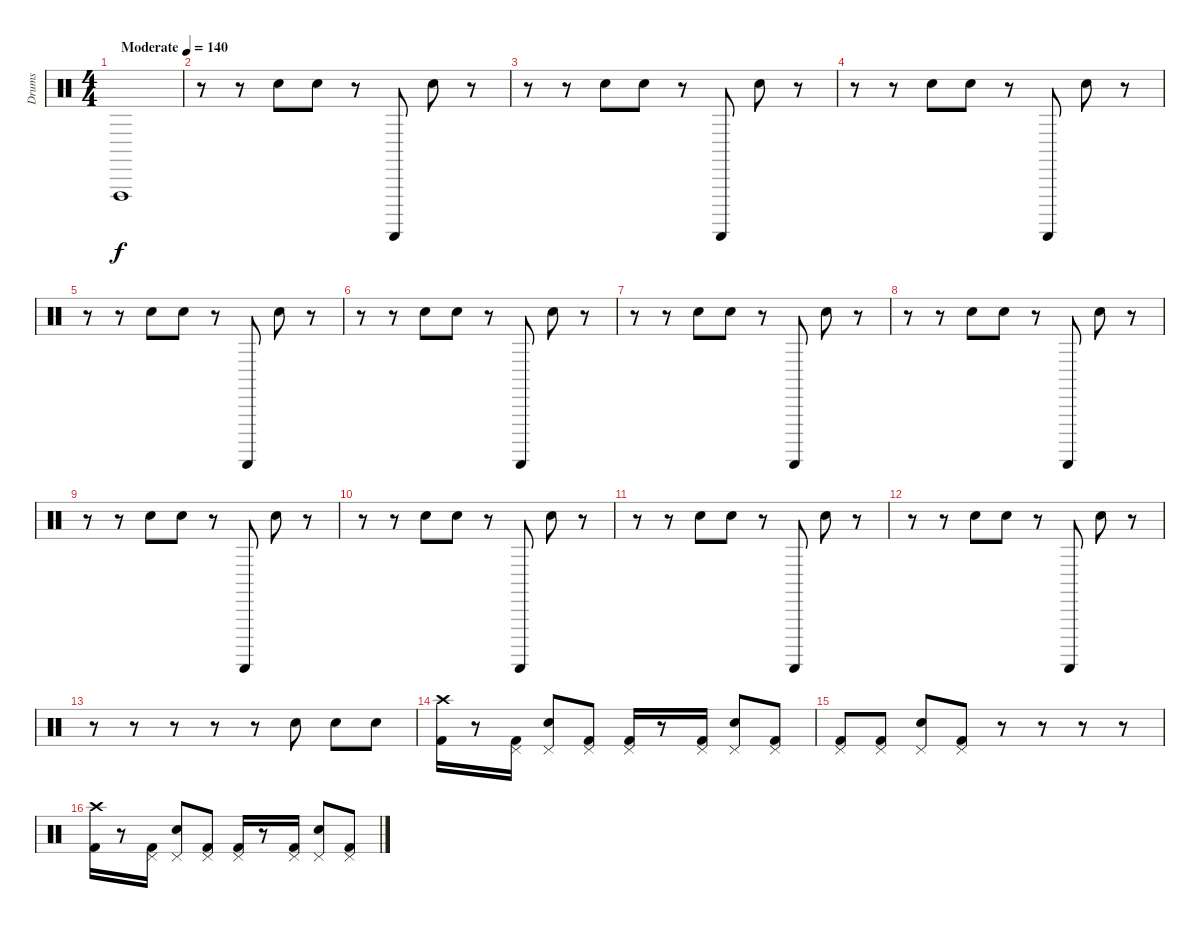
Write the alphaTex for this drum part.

\track ("Drums" "Drums") {instrument percussion}
\staff {score}
\articulation defaults
\ts (4 4)
\tempo (140 "Moderate")
\clef neutral
\ks c "Vibraslap (hit)".1{dy f}
|
r.8 r.8 "Hand Clap (hit)".8 "Hand Clap (hit)".8 r.8 "Guiro (scrap-return)".8 "Hand Clap (hit)".8 r.8 |
r.8 r.8 "Hand Clap (hit)".8 "Hand Clap (hit)".8 r.8 "Guiro (scrap-return)".8 "Hand Clap (hit)".8 r.8 |
r.8 r.8 "Hand Clap (hit)".8 "Hand Clap (hit)".8 r.8 "Guiro (scrap-return)".8 "Hand Clap (hit)".8 r.8 |
r.8 r.8 "Hand Clap (hit)".8 "Hand Clap (hit)".8 r.8 "Guiro (scrap-return)".8 "Hand Clap (hit)".8 r.8 |
r.8 r.8 "Hand Clap (hit)".8 "Hand Clap (hit)".8 r.8 "Guiro (scrap-return)".8 "Hand Clap (hit)".8 r.8 |
r.8 r.8 "Hand Clap (hit)".8 "Hand Clap (hit)".8 r.8 "Guiro (scrap-return)".8 "Hand Clap (hit)".8 r.8 |
r.8 r.8 "Hand Clap (hit)".8 "Hand Clap (hit)".8 r.8 "Guiro (scrap-return)".8 "Hand Clap (hit)".8 r.8 |
r.8 r.8 "Hand Clap (hit)".8 "Hand Clap (hit)".8 r.8 "Guiro (scrap-return)".8 "Hand Clap (hit)".8 r.8 |
r.8 r.8 "Hand Clap (hit)".8 "Hand Clap (hit)".8 r.8 "Guiro (scrap-return)".8 "Hand Clap (hit)".8 r.8 |
r.8 r.8 "Hand Clap (hit)".8 "Hand Clap (hit)".8 r.8 "Guiro (scrap-return)".8 "Hand Clap (hit)".8 r.8 |
r.8 r.8 "Hand Clap (hit)".8 "Hand Clap (hit)".8 r.8 "Guiro (scrap-return)".8 "Hand Clap (hit)".8 r.8 |
r.8 r.8 r.8 r.8 r.8 "Snare (hit) 2".8 "Snare (hit) 2".8 "Snare (hit) 2".8 |
("Kick (hit) 2" "Crash high (hit)").16 r.8 ("Kick (hit) 2" "Pedal Hi-Hat (hit)").16 ("Snare (hit) 2" "Pedal Hi-Hat (hit)").8 ("Kick (hit) 2" "Pedal Hi-Hat (hit)").8 ("Kick (hit) 2" "Pedal Hi-Hat (hit)").16 r.8 ("Kick (hit) 2" "Pedal Hi-Hat (hit)").16 ("Snare (hit) 2" "Pedal Hi-Hat (hit)").8 ("Kick (hit) 2" "Pedal Hi-Hat (hit)").8 |
("Kick (hit) 2" "Pedal Hi-Hat (hit)").8 ("Kick (hit) 2" "Pedal Hi-Hat (hit)").8 ("Snare (hit) 2" "Pedal Hi-Hat (hit)").8 ("Kick (hit) 2" "Pedal Hi-Hat (hit)").8 r.8 r.8 r.8 r.8 |
("Kick (hit) 2" "Crash high (hit)").16 r.8 ("Kick (hit) 2" "Pedal Hi-Hat (hit)").16 ("Snare (hit) 2" "Pedal Hi-Hat (hit)").8 ("Kick (hit) 2" "Pedal Hi-Hat (hit)").8 ("Kick (hit) 2" "Pedal Hi-Hat (hit)").16 r.8 ("Kick (hit) 2" "Pedal Hi-Hat (hit)").16 ("Snare (hit) 2" "Pedal Hi-Hat (hit)").8 ("Kick (hit) 2" "Pedal Hi-Hat (hit)").8
